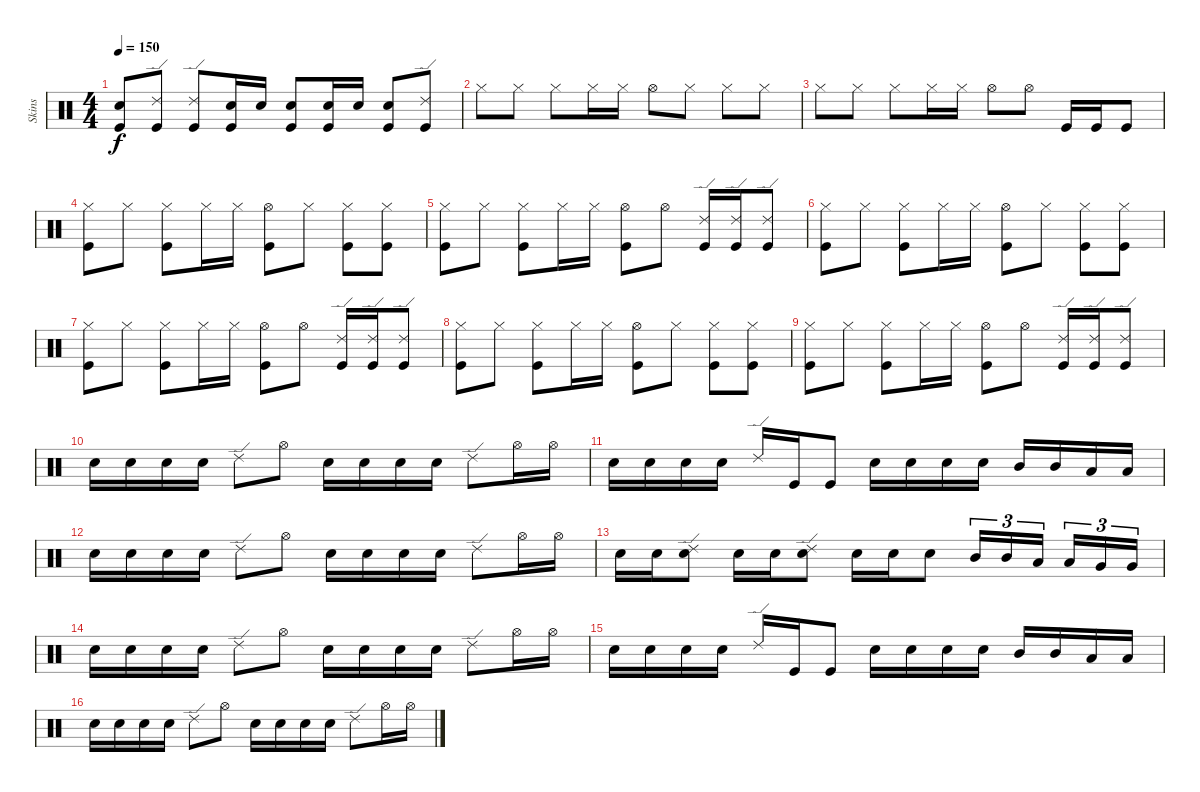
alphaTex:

\track ("Skins" "Skins") {instrument percussion}
\staff {score}
\articulation defaults
\ts (4 4)
\tempo 150
\clef neutral
\ks c
("Electric Snare (hit)" "Kick (hit)").8{dy f} ("Ride (edge) 2" "Kick (hit)").8 ("Ride (edge) 2" "Kick (hit)").8 ("Electric Snare (hit)" "Kick (hit)").16 "Electric Snare (hit)".16 ("Electric Snare (hit)" "Kick (hit)").8 ("Snare (hit) 2" "Kick (hit)").16 "Snare (hit) 2".16 ("Snare (hit) 2" "Kick (hit)").8 ("Ride (edge) 2" "Kick (hit)").8 |
"Hi-Hat (closed)".8 "Hi-Hat (closed)".8 "Hi-Hat (closed)".8 "Hi-Hat (closed)".16 "Hi-Hat (closed)".16 "Hi-Hat (open)".8 "Hi-Hat (closed)".8 "Hi-Hat (closed)".8 "Hi-Hat (closed)".8 |
"Hi-Hat (closed)".8 "Hi-Hat (closed)".8 "Hi-Hat (closed)".8 "Hi-Hat (closed)".16 "Hi-Hat (closed)".16 "Hi-Hat (open)".8 "Hi-Hat (open)".8 "Kick (hit)".16 "Kick (hit)".16 "Kick (hit)".8 |
("Hi-Hat (closed)" "Kick (hit)").8 "Hi-Hat (closed)".8 ("Hi-Hat (closed)" "Kick (hit)").8 "Hi-Hat (closed)".16 "Hi-Hat (closed)".16 ("Hi-Hat (open)" "Kick (hit)").8 "Hi-Hat (closed)".8 ("Hi-Hat (closed)" "Kick (hit)").8 ("Hi-Hat (closed)" "Kick (hit)").8 |
("Hi-Hat (closed)" "Kick (hit)").8 "Hi-Hat (closed)".8 ("Hi-Hat (closed)" "Kick (hit)").8 "Hi-Hat (closed)".16 "Hi-Hat (closed)".16 ("Hi-Hat (open)" "Kick (hit)").8 "Hi-Hat (open)".8 ("Ride (edge) 2" "Kick (hit)").16 ("Ride (edge) 2" "Kick (hit)").16 ("Ride (edge) 2" "Kick (hit)").8 |
("Hi-Hat (closed)" "Kick (hit)").8 "Hi-Hat (closed)".8 ("Hi-Hat (closed)" "Kick (hit)").8 "Hi-Hat (closed)".16 "Hi-Hat (closed)".16 ("Hi-Hat (open)" "Kick (hit)").8 "Hi-Hat (closed)".8 ("Hi-Hat (closed)" "Kick (hit)").8 ("Hi-Hat (closed)" "Kick (hit)").8 |
("Hi-Hat (closed)" "Kick (hit)").8 "Hi-Hat (closed)".8 ("Hi-Hat (closed)" "Kick (hit)").8 "Hi-Hat (closed)".16 "Hi-Hat (closed)".16 ("Hi-Hat (open)" "Kick (hit)").8 "Hi-Hat (open)".8 ("Ride (edge) 2" "Kick (hit)").16 ("Ride (edge) 2" "Kick (hit)").16 ("Ride (edge) 2" "Kick (hit)").8 |
("Hi-Hat (closed)" "Kick (hit)").8 "Hi-Hat (closed)".8 ("Hi-Hat (closed)" "Kick (hit)").8 "Hi-Hat (closed)".16 "Hi-Hat (closed)".16 ("Hi-Hat (open)" "Kick (hit)").8 "Hi-Hat (closed)".8 ("Hi-Hat (closed)" "Kick (hit)").8 ("Hi-Hat (closed)" "Kick (hit)").8 |
("Hi-Hat (closed)" "Kick (hit)").8 "Hi-Hat (closed)".8 ("Hi-Hat (closed)" "Kick (hit)").8 "Hi-Hat (closed)".16 "Hi-Hat (closed)".16 ("Hi-Hat (open)" "Kick (hit)").8 "Hi-Hat (open)".8 ("Ride (edge) 2" "Kick (hit)").16 ("Ride (edge) 2" "Kick (hit)").16 ("Ride (edge) 2" "Kick (hit)").8 |
"Snare (hit) 2".16 "Snare (hit) 2".16 "Snare (hit) 2".16 "Snare (hit) 2".16 "Ride (edge) 2".8 "Hi-Hat (open)".8 "Snare (hit) 2".16 "Snare (hit) 2".16 "Snare (hit) 2".16 "Snare (hit) 2".16 "Ride (edge) 2".8 "Hi-Hat (open)".16 "Hi-Hat (open)".16 |
"Electric Snare (hit)".16 "Electric Snare (hit)".16 "Snare (hit) 2".16 "Snare (hit) 2".16 "Ride (edge) 2".16 "Kick (hit)".16 "Kick (hit)".8 "Electric Snare (hit)".16 "Electric Snare (hit)".16 "Snare (hit) 2".16 "Snare (hit) 2".16 "Mid Tom (hit)".16 "Mid Tom (hit)".16 "Low Tom (hit)".16 "Low Tom (hit)".16 |
"Snare (hit) 2".16 "Snare (hit) 2".16 "Snare (hit) 2".16 "Snare (hit) 2".16 "Ride (edge) 2".8 "Hi-Hat (open)".8 "Snare (hit) 2".16 "Snare (hit) 2".16 "Snare (hit) 2".16 "Snare (hit) 2".16 "Ride (edge) 2".8 "Hi-Hat (open)".16 "Hi-Hat (open)".16 |
"Snare (hit) 2".16 "Snare (hit) 2".16 ("Snare (hit) 2" "Ride (edge) 2").8 "Electric Snare (hit)".16 "Electric Snare (hit)".16 ("Electric Snare (hit)" "Ride (edge) 2").8 "Snare (hit) 2".16 "Snare (hit) 2".16 "Snare (hit) 2".8 "Mid Tom (hit)".16{tu (3 2)} "Mid Tom (hit)".16{tu (3 2)} "Low Tom (hit)".16{tu (3 2)} "Low Tom (hit)".16{tu (3 2)} "Very Low Tom (hit)".16{tu (3 2)} "Very Low Tom (hit)".16{tu (3 2)} |
"Snare (hit) 2".16 "Snare (hit) 2".16 "Snare (hit) 2".16 "Snare (hit) 2".16 "Ride (edge) 2".8 "Hi-Hat (open)".8 "Snare (hit) 2".16 "Snare (hit) 2".16 "Snare (hit) 2".16 "Snare (hit) 2".16 "Ride (edge) 2".8 "Hi-Hat (open)".16 "Hi-Hat (open)".16 |
"Electric Snare (hit)".16 "Electric Snare (hit)".16 "Snare (hit) 2".16 "Snare (hit) 2".16 "Ride (edge) 2".16 "Kick (hit)".16 "Kick (hit)".8 "Electric Snare (hit)".16 "Electric Snare (hit)".16 "Snare (hit) 2".16 "Snare (hit) 2".16 "Mid Tom (hit)".16 "Mid Tom (hit)".16 "Low Tom (hit)".16 "Low Tom (hit)".16 |
"Snare (hit) 2".16 "Snare (hit) 2".16 "Snare (hit) 2".16 "Snare (hit) 2".16 "Ride (edge) 2".8 "Hi-Hat (open)".8 "Snare (hit) 2".16 "Snare (hit) 2".16 "Snare (hit) 2".16 "Snare (hit) 2".16 "Ride (edge) 2".8 "Hi-Hat (open)".16 "Hi-Hat (open)".16
